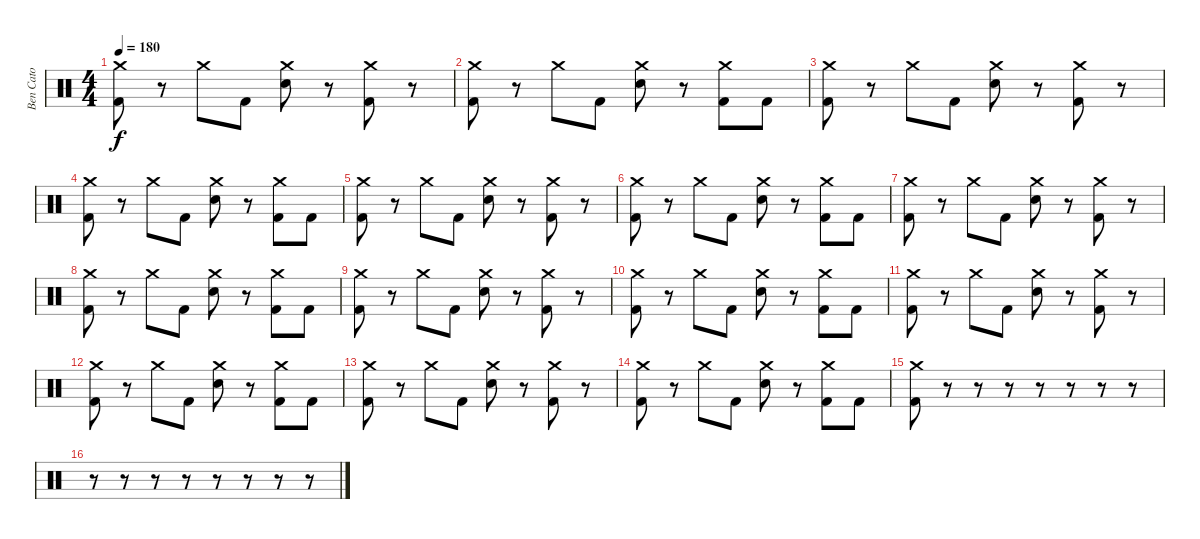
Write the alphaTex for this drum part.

\track ("Ben Cato" "Ben Cato") {instrument percussion}
\staff {score}
\articulation defaults
\ts (4 4)
\tempo 180
\clef neutral
\ks c
("Crash medium (hit)" "Kick (hit) 2").8{dy f} r.8 "Crash medium (hit)".8 "Kick (hit) 2".8 ("Crash medium (hit)" "Electric Snare (hit)").8 r.8 ("Crash medium (hit)" "Kick (hit) 2").8 r.8 |
("Crash medium (hit)" "Kick (hit) 2").8 r.8 "Crash medium (hit)".8 "Kick (hit) 2".8 ("Crash medium (hit)" "Electric Snare (hit)").8 r.8 ("Crash medium (hit)" "Kick (hit) 2").8 "Kick (hit) 2".8 |
("Crash medium (hit)" "Kick (hit) 2").8 r.8 "Crash medium (hit)".8 "Kick (hit) 2".8 ("Crash medium (hit)" "Electric Snare (hit)").8 r.8 ("Crash medium (hit)" "Kick (hit) 2").8 r.8 |
("Crash medium (hit)" "Kick (hit) 2").8 r.8 "Crash medium (hit)".8 "Kick (hit) 2".8 ("Crash medium (hit)" "Electric Snare (hit)").8 r.8 ("Crash medium (hit)" "Kick (hit) 2").8 "Kick (hit) 2".8 |
("Crash medium (hit)" "Kick (hit) 2").8 r.8 "Crash medium (hit)".8 "Kick (hit) 2".8 ("Crash medium (hit)" "Electric Snare (hit)").8 r.8 ("Crash medium (hit)" "Kick (hit) 2").8 r.8 |
("Crash medium (hit)" "Kick (hit) 2").8 r.8 "Crash medium (hit)".8 "Kick (hit) 2".8 ("Crash medium (hit)" "Electric Snare (hit)").8 r.8 ("Crash medium (hit)" "Kick (hit) 2").8 "Kick (hit) 2".8 |
("Crash medium (hit)" "Kick (hit) 2").8 r.8 "Crash medium (hit)".8 "Kick (hit) 2".8 ("Crash medium (hit)" "Electric Snare (hit)").8 r.8 ("Crash medium (hit)" "Kick (hit) 2").8 r.8 |
("Crash medium (hit)" "Kick (hit) 2").8 r.8 "Crash medium (hit)".8 "Kick (hit) 2".8 ("Crash medium (hit)" "Electric Snare (hit)").8 r.8 ("Crash medium (hit)" "Kick (hit) 2").8 "Kick (hit) 2".8 |
("Crash medium (hit)" "Kick (hit) 2").8 r.8 "Crash medium (hit)".8 "Kick (hit) 2".8 ("Crash medium (hit)" "Electric Snare (hit)").8 r.8 ("Crash medium (hit)" "Kick (hit) 2").8 r.8 |
("Crash medium (hit)" "Kick (hit) 2").8 r.8 "Crash medium (hit)".8 "Kick (hit) 2".8 ("Crash medium (hit)" "Electric Snare (hit)").8 r.8 ("Crash medium (hit)" "Kick (hit) 2").8 "Kick (hit) 2".8 |
("Crash medium (hit)" "Kick (hit) 2").8 r.8 "Crash medium (hit)".8 "Kick (hit) 2".8 ("Crash medium (hit)" "Electric Snare (hit)").8 r.8 ("Crash medium (hit)" "Kick (hit) 2").8 r.8 |
("Crash medium (hit)" "Kick (hit) 2").8 r.8 "Crash medium (hit)".8 "Kick (hit) 2".8 ("Crash medium (hit)" "Electric Snare (hit)").8 r.8 ("Crash medium (hit)" "Kick (hit) 2").8 "Kick (hit) 2".8 |
("Crash medium (hit)" "Kick (hit) 2").8 r.8 "Crash medium (hit)".8 "Kick (hit) 2".8 ("Crash medium (hit)" "Electric Snare (hit)").8 r.8 ("Crash medium (hit)" "Kick (hit) 2").8 r.8 |
("Crash medium (hit)" "Kick (hit) 2").8 r.8 "Crash medium (hit)".8 "Kick (hit) 2".8 ("Crash medium (hit)" "Electric Snare (hit)").8 r.8 ("Crash medium (hit)" "Kick (hit) 2").8 "Kick (hit) 2".8 |
("Crash medium (hit)" "Kick (hit) 2").8 r.8 r.8 r.8 r.8 r.8 r.8 r.8 |
r.8 r.8 r.8 r.8 r.8 r.8 r.8 r.8
